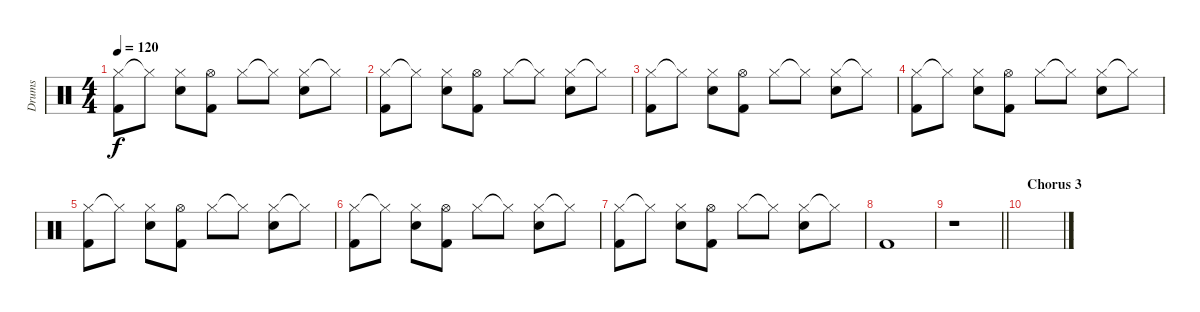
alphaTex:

\track ("Drums" "Drums") {instrument percussion}
\staff {score}
\articulation defaults
\ts (4 4)
\tempo 120
\clef neutral
\ks c
("Hi-Hat (closed)" "Kick (hit) 2").8{dy f} "Hi-Hat (closed)"{t}.8 ("Hi-Hat (closed)" "Electric Snare (hit)").8 ("Hi-Hat (open)" "Kick (hit) 2").8 "Hi-Hat (closed)".8 "Hi-Hat (closed)"{t}.8 ("Hi-Hat (closed)" "Electric Snare (hit)").8 "Hi-Hat (closed)"{t}.8 |
("Hi-Hat (closed)" "Kick (hit) 2").8 "Hi-Hat (closed)"{t}.8 ("Hi-Hat (closed)" "Electric Snare (hit)").8 ("Hi-Hat (open)" "Kick (hit) 2").8 "Hi-Hat (closed)".8 "Hi-Hat (closed)"{t}.8 ("Hi-Hat (closed)" "Electric Snare (hit)").8 "Hi-Hat (closed)"{t}.8 |
("Hi-Hat (closed)" "Kick (hit) 2").8 "Hi-Hat (closed)"{t}.8 ("Hi-Hat (closed)" "Electric Snare (hit)").8 ("Hi-Hat (open)" "Kick (hit) 2").8 "Hi-Hat (closed)".8 "Hi-Hat (closed)"{t}.8 ("Hi-Hat (closed)" "Electric Snare (hit)").8 "Hi-Hat (closed)"{t}.8 |
("Hi-Hat (closed)" "Kick (hit) 2").8 "Hi-Hat (closed)"{t}.8 ("Hi-Hat (closed)" "Electric Snare (hit)").8 ("Hi-Hat (open)" "Kick (hit) 2").8 "Hi-Hat (closed)".8 "Hi-Hat (closed)"{t}.8 ("Hi-Hat (closed)" "Electric Snare (hit)").8 "Hi-Hat (closed)"{t}.8 |
("Hi-Hat (closed)" "Kick (hit) 2").8 "Hi-Hat (closed)"{t}.8 ("Hi-Hat (closed)" "Electric Snare (hit)").8 ("Hi-Hat (open)" "Kick (hit) 2").8 "Hi-Hat (closed)".8 "Hi-Hat (closed)"{t}.8 ("Hi-Hat (closed)" "Electric Snare (hit)").8 "Hi-Hat (closed)"{t}.8 |
("Hi-Hat (closed)" "Kick (hit) 2").8 "Hi-Hat (closed)"{t}.8 ("Hi-Hat (closed)" "Electric Snare (hit)").8 ("Hi-Hat (open)" "Kick (hit) 2").8 "Hi-Hat (closed)".8 "Hi-Hat (closed)"{t}.8 ("Hi-Hat (closed)" "Electric Snare (hit)").8 "Hi-Hat (closed)"{t}.8 |
("Hi-Hat (closed)" "Kick (hit) 2").8 "Hi-Hat (closed)"{t}.8 ("Hi-Hat (closed)" "Electric Snare (hit)").8 ("Hi-Hat (open)" "Kick (hit) 2").8 "Hi-Hat (closed)".8 "Hi-Hat (closed)"{t}.8 ("Hi-Hat (closed)" "Electric Snare (hit)").8 "Hi-Hat (closed)"{t}.8 |
"Kick (hit) 2".1 |
\barLineRight lightlight
r.1 |
\section ("" "Chorus 3")
